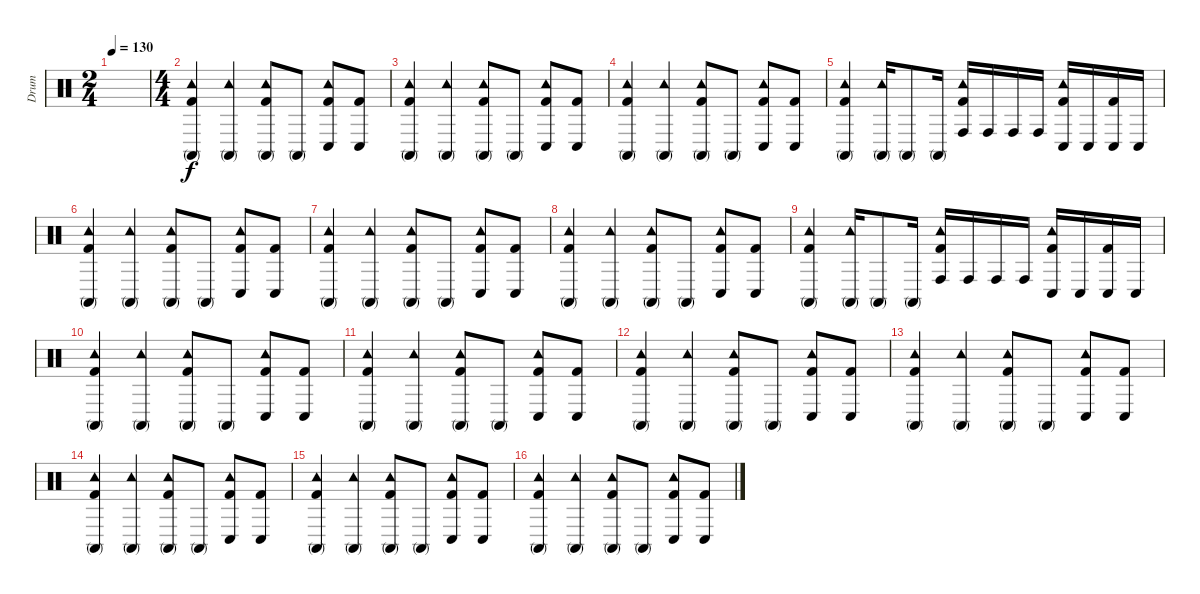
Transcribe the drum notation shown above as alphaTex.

\track ("Drum" "Drum") {instrument percussion}
\staff {score}
\articulation defaults
\ts (2 4)
\tempo 130
\clef neutral
\ks c
|
\ts (4 4)
("Tambourine (hit)" "Conga high (mute)" "Kick (hit) 2").4 ("Tambourine (hit)" "Conga high (mute)").4 ("Tambourine (hit)" "Conga high (mute)" "Kick (hit) 2").8 "Conga high (mute)".8 ("Tambourine (hit)" "Conga low (hit)" "Kick (hit) 2").8 ("Conga low (hit)" "Kick (hit) 2").8 |
("Tambourine (hit)" "Conga high (mute)" "Kick (hit) 2").4 ("Tambourine (hit)" "Conga high (mute)").4 ("Tambourine (hit)" "Conga high (mute)" "Kick (hit) 2").8 "Conga high (mute)".8 ("Tambourine (hit)" "Conga low (hit)" "Kick (hit) 2").8 ("Conga low (hit)" "Kick (hit) 2").8 |
("Tambourine (hit)" "Conga high (mute)" "Kick (hit) 2").4 ("Tambourine (hit)" "Conga high (mute)").4 ("Tambourine (hit)" "Conga high (mute)" "Kick (hit) 2").8 "Conga high (mute)".8 ("Tambourine (hit)" "Conga low (hit)" "Kick (hit) 2").8 ("Conga low (hit)" "Kick (hit) 2").8 |
("Tambourine (hit)" "Conga high (mute)" "Kick (hit) 2").4 ("Tambourine (hit)" "Conga high (mute)").16 "Conga high (mute)".8 "Conga high (mute)".16 ("Tambourine (hit)" "Conga high (hit)" "Kick (hit) 2").16 "Conga high (hit)".16 "Conga high (hit)".16 "Conga high (hit)".16 ("Tambourine (hit)" "Conga low (hit)" "Kick (hit) 2").16 "Conga low (hit)".16 ("Conga low (hit)" "Kick (hit) 2").16 "Conga low (hit)".16 |
("Tambourine (hit)" "Conga high (mute)" "Kick (hit) 2").4 ("Tambourine (hit)" "Conga high (mute)").4 ("Tambourine (hit)" "Conga high (mute)" "Kick (hit) 2").8 "Conga high (mute)".8 ("Tambourine (hit)" "Conga low (hit)" "Kick (hit) 2").8 ("Conga low (hit)" "Kick (hit) 2").8 |
("Tambourine (hit)" "Conga high (mute)" "Kick (hit) 2").4 ("Tambourine (hit)" "Conga high (mute)").4 ("Tambourine (hit)" "Conga high (mute)" "Kick (hit) 2").8 "Conga high (mute)".8 ("Tambourine (hit)" "Conga low (hit)" "Kick (hit) 2").8 ("Conga low (hit)" "Kick (hit) 2").8 |
("Tambourine (hit)" "Conga high (mute)" "Kick (hit) 2").4 ("Tambourine (hit)" "Conga high (mute)").4 ("Tambourine (hit)" "Conga high (mute)" "Kick (hit) 2").8 "Conga high (mute)".8 ("Tambourine (hit)" "Conga low (hit)" "Kick (hit) 2").8 ("Conga low (hit)" "Kick (hit) 2").8 |
("Tambourine (hit)" "Conga high (mute)" "Kick (hit) 2").4 ("Tambourine (hit)" "Conga high (mute)").16 "Conga high (mute)".8 "Conga high (mute)".16 ("Tambourine (hit)" "Conga high (hit)" "Kick (hit) 2").16 "Conga high (hit)".16 "Conga high (hit)".16 "Conga high (hit)".16 ("Tambourine (hit)" "Conga low (hit)" "Kick (hit) 2").16 "Conga low (hit)".16 ("Conga low (hit)" "Kick (hit) 2").16 "Conga low (hit)".16 |
("Tambourine (hit)" "Conga high (mute)" "Kick (hit) 2").4 ("Tambourine (hit)" "Conga high (mute)").4 ("Tambourine (hit)" "Conga high (mute)" "Kick (hit) 2").8 "Conga high (mute)".8 ("Tambourine (hit)" "Conga low (hit)" "Kick (hit) 2").8 ("Conga low (hit)" "Kick (hit) 2").8 |
("Tambourine (hit)" "Conga high (mute)" "Kick (hit) 2").4 ("Tambourine (hit)" "Conga high (mute)").4 ("Tambourine (hit)" "Conga high (mute)" "Kick (hit) 2").8 "Conga high (mute)".8 ("Tambourine (hit)" "Conga low (hit)" "Kick (hit) 2").8 ("Conga low (hit)" "Kick (hit) 2").8 |
("Tambourine (hit)" "Conga high (mute)" "Kick (hit) 2").4 ("Tambourine (hit)" "Conga high (mute)").4 ("Tambourine (hit)" "Conga high (mute)" "Kick (hit) 2").8 "Conga high (mute)".8 ("Tambourine (hit)" "Conga low (hit)" "Kick (hit) 2").8 ("Conga low (hit)" "Kick (hit) 2").8 |
("Tambourine (hit)" "Conga high (mute)" "Kick (hit) 2").4 ("Tambourine (hit)" "Conga high (mute)").4 ("Tambourine (hit)" "Conga high (mute)" "Kick (hit) 2").8 "Conga high (mute)".8 ("Tambourine (hit)" "Conga low (hit)" "Kick (hit) 2").8 ("Conga low (hit)" "Kick (hit) 2").8 |
("Tambourine (hit)" "Conga high (mute)" "Kick (hit) 2").4 ("Tambourine (hit)" "Conga high (mute)").4 ("Tambourine (hit)" "Conga high (mute)" "Kick (hit) 2").8 "Conga high (mute)".8 ("Tambourine (hit)" "Conga low (hit)" "Kick (hit) 2").8 ("Conga low (hit)" "Kick (hit) 2").8 |
("Tambourine (hit)" "Conga high (mute)" "Kick (hit) 2").4 ("Tambourine (hit)" "Conga high (mute)").4 ("Tambourine (hit)" "Conga high (mute)" "Kick (hit) 2").8 "Conga high (mute)".8 ("Tambourine (hit)" "Conga low (hit)" "Kick (hit) 2").8 ("Conga low (hit)" "Kick (hit) 2").8 |
("Tambourine (hit)" "Conga high (mute)" "Kick (hit) 2").4 ("Tambourine (hit)" "Conga high (mute)").4 ("Tambourine (hit)" "Conga high (mute)" "Kick (hit) 2").8 "Conga high (mute)".8 ("Tambourine (hit)" "Conga low (hit)" "Kick (hit) 2").8 ("Conga low (hit)" "Kick (hit) 2").8
